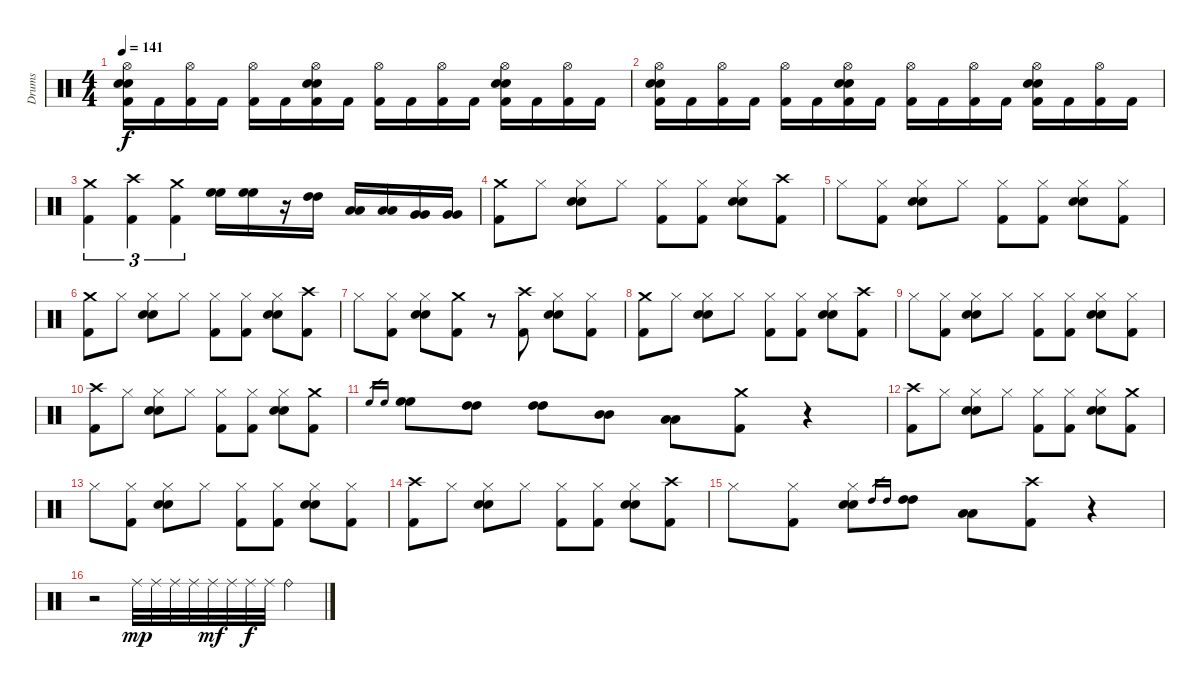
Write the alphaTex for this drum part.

\track ("Drums " "Drums ") {instrument percussion}
\staff {score}
\articulation defaults
\ts (4 4)
\tempo 141
\clef neutral
\ks c
("Hi-Hat (open)" "Snare (hit) 2" "Electric Snare (hit)" "Kick (hit) 2").16{dy f} "Kick (hit) 2".16 ("Hi-Hat (open)" "Kick (hit) 2").16 "Kick (hit) 2".16 ("Hi-Hat (open)" "Kick (hit) 2").16 "Kick (hit) 2".16 ("Hi-Hat (open)" "Snare (hit) 2" "Electric Snare (hit)" "Kick (hit) 2").16 "Kick (hit) 2".16 ("Hi-Hat (open)" "Kick (hit) 2").16 "Kick (hit) 2".16 ("Hi-Hat (open)" "Kick (hit) 2").16 "Kick (hit) 2".16 ("Hi-Hat (open)" "Snare (hit) 2" "Electric Snare (hit)" "Kick (hit) 2").16 "Kick (hit) 2".16 ("Hi-Hat (open)" "Kick (hit) 2").16 "Kick (hit) 2".16 |
("Hi-Hat (open)" "Snare (hit) 2" "Electric Snare (hit)" "Kick (hit) 2").16 "Kick (hit) 2".16 ("Hi-Hat (open)" "Kick (hit) 2").16 "Kick (hit) 2".16 ("Hi-Hat (open)" "Kick (hit) 2").16 "Kick (hit) 2".16 ("Hi-Hat (open)" "Snare (hit) 2" "Electric Snare (hit)" "Kick (hit) 2").16 "Kick (hit) 2".16 ("Hi-Hat (open)" "Kick (hit) 2").16 "Kick (hit) 2".16 ("Hi-Hat (open)" "Kick (hit) 2").16 "Kick (hit) 2".16 ("Hi-Hat (open)" "Snare (hit) 2" "Electric Snare (hit)" "Kick (hit) 2").16 "Kick (hit) 2".16 ("Hi-Hat (open)" "Kick (hit) 2").16 "Kick (hit) 2".16 |
("Crash medium (hit)" "Kick (hit) 2").4{tu (3 2)} ("Crash high (hit)" "Kick (hit) 2").4{tu (3 2)} ("Crash medium (hit)" "Kick (hit) 2").4{tu (3 2)} ("High Floor Tom (hit)" "High Floor Tom (hit)").16 ("High Floor Tom (hit)" "High Floor Tom (hit)").16 r.16 ("High Tom (hit)" "High Tom (hit)").16 ("Low Tom (hit)" "Low Tom (hit)").16 ("Low Tom (hit)" "Low Tom (hit)").16 ("Very Low Tom (hit)" "Very Low Tom (hit)").16 ("Very Low Tom (hit)" "Very Low Tom (hit)").16 |
("Crash medium (hit)" "Kick (hit) 2").8 "Hi-Hat (closed)".8 ("Hi-Hat (closed)" "Snare (hit) 2" "Electric Snare (hit)").8 "Hi-Hat (closed)".8 ("Hi-Hat (closed)" "Kick (hit) 2").8 ("Hi-Hat (closed)" "Kick (hit) 2").8 ("Hi-Hat (closed)" "Snare (hit) 2" "Electric Snare (hit)").8 ("Crash high (hit)" "Kick (hit) 2").8 |
"Hi-Hat (closed)".8 ("Hi-Hat (closed)" "Kick (hit) 2").8 ("Hi-Hat (closed)" "Snare (hit) 2" "Electric Snare (hit)").8 "Hi-Hat (closed)".8 ("Hi-Hat (closed)" "Kick (hit) 2").8 ("Hi-Hat (closed)" "Kick (hit) 2").8 ("Hi-Hat (closed)" "Snare (hit) 2" "Electric Snare (hit)").8 ("Hi-Hat (closed)" "Kick (hit) 2").8 |
("Crash medium (hit)" "Kick (hit) 2").8 "Hi-Hat (closed)".8 ("Hi-Hat (closed)" "Snare (hit) 2" "Electric Snare (hit)").8 "Hi-Hat (closed)".8 ("Hi-Hat (closed)" "Kick (hit) 2").8 ("Hi-Hat (closed)" "Kick (hit) 2").8 ("Hi-Hat (closed)" "Snare (hit) 2" "Electric Snare (hit)").8 ("Crash high (hit)" "Kick (hit) 2").8 |
"Hi-Hat (closed)".8 ("Hi-Hat (closed)" "Kick (hit) 2").8 ("Hi-Hat (closed)" "Snare (hit) 2" "Electric Snare (hit)").8 ("Crash medium (hit)" "Kick (hit) 2").8 r.8 ("Crash high (hit)" "Kick (hit) 2").8 ("Hi-Hat (closed)" "Snare (hit) 2" "Electric Snare (hit)").8 ("Hi-Hat (closed)" "Kick (hit) 2").8 |
("Crash medium (hit)" "Kick (hit) 2").8 "Hi-Hat (closed)".8 ("Hi-Hat (closed)" "Snare (hit) 2" "Electric Snare (hit)").8 "Hi-Hat (closed)".8 ("Hi-Hat (closed)" "Kick (hit) 2").8 ("Hi-Hat (closed)" "Kick (hit) 2").8 ("Hi-Hat (closed)" "Snare (hit) 2" "Electric Snare (hit)").8 ("Crash high (hit)" "Kick (hit) 2").8 |
"Hi-Hat (closed)".8 ("Hi-Hat (closed)" "Kick (hit) 2").8 ("Hi-Hat (closed)" "Snare (hit) 2" "Electric Snare (hit)").8 "Hi-Hat (closed)".8 ("Hi-Hat (closed)" "Kick (hit) 2").8 ("Hi-Hat (closed)" "Kick (hit) 2").8 ("Hi-Hat (closed)" "Snare (hit) 2" "Electric Snare (hit)").8 ("Hi-Hat (closed)" "Kick (hit) 2").8 |
("Crash high (hit)" "Kick (hit) 2").8 "Hi-Hat (closed)".8 ("Hi-Hat (closed)" "Snare (hit) 2" "Electric Snare (hit)").8 "Hi-Hat (closed)".8 ("Hi-Hat (closed)" "Kick (hit) 2").8 ("Hi-Hat (closed)" "Kick (hit) 2").8 ("Hi-Hat (closed)" "Snare (hit) 2" "Electric Snare (hit)").8 ("Crash medium (hit)" "Kick (hit) 2").8 |
"High Floor Tom (hit)".16{gr} "High Floor Tom (hit)".16{gr} ("High Floor Tom (hit)" "High Floor Tom (hit)").8 ("High Tom (hit)" "High Tom (hit)").8 ("High Tom (hit)" "High Tom (hit)").8 ("Mid Tom (hit)" "Mid Tom (hit)").8 ("Low Tom (hit)" "Low Tom (hit)").8 ("Crash medium (hit)" "Kick (hit) 2").8 r.4 |
("Crash high (hit)" "Kick (hit) 2").8 "Hi-Hat (closed)".8 ("Hi-Hat (closed)" "Snare (hit) 2" "Electric Snare (hit)").8 "Hi-Hat (closed)".8 ("Hi-Hat (closed)" "Kick (hit) 2").8 ("Hi-Hat (closed)" "Kick (hit) 2").8 ("Hi-Hat (closed)" "Snare (hit) 2" "Electric Snare (hit)").8 ("Crash medium (hit)" "Kick (hit) 2").8 |
"Hi-Hat (closed)".8 ("Hi-Hat (closed)" "Kick (hit) 2").8 ("Hi-Hat (closed)" "Snare (hit) 2" "Electric Snare (hit)").8 "Hi-Hat (closed)".8 ("Hi-Hat (closed)" "Kick (hit) 2").8 ("Hi-Hat (closed)" "Kick (hit) 2").8 ("Hi-Hat (closed)" "Snare (hit) 2" "Electric Snare (hit)").8 ("Hi-Hat (closed)" "Kick (hit) 2").8 |
("Crash high (hit)" "Kick (hit) 2").8 "Hi-Hat (closed)".8 ("Hi-Hat (closed)" "Snare (hit) 2" "Electric Snare (hit)").8 "Hi-Hat (closed)".8 ("Hi-Hat (closed)" "Kick (hit) 2").8 ("Hi-Hat (closed)" "Kick (hit) 2").8 ("Hi-Hat (closed)" "Snare (hit) 2" "Electric Snare (hit)").8 ("Crash high (hit)" "Kick (hit) 2").8 |
"Hi-Hat (closed)".8 ("Hi-Hat (closed)" "Kick (hit) 2").8 ("Hi-Hat (closed)" "Snare (hit) 2" "Electric Snare (hit)").8 "High Tom (hit)".16{gr} "High Tom (hit)".16{gr} ("High Tom (hit)" "High Tom (hit)").8 ("Low Tom (hit)" "Low Tom (hit)").8 ("Crash high (hit)" "Kick (hit) 2").8 r.4 |
r.2 "Ride (middle)".32{dy mp} "Ride (middle)".32 "Ride (middle)".32 "Ride (middle)".32 "Ride (middle)".32{dy mf} "Ride (middle)".32 "Ride (middle)".32{dy f} "Ride (middle)".32 "Ride (bell)".4
